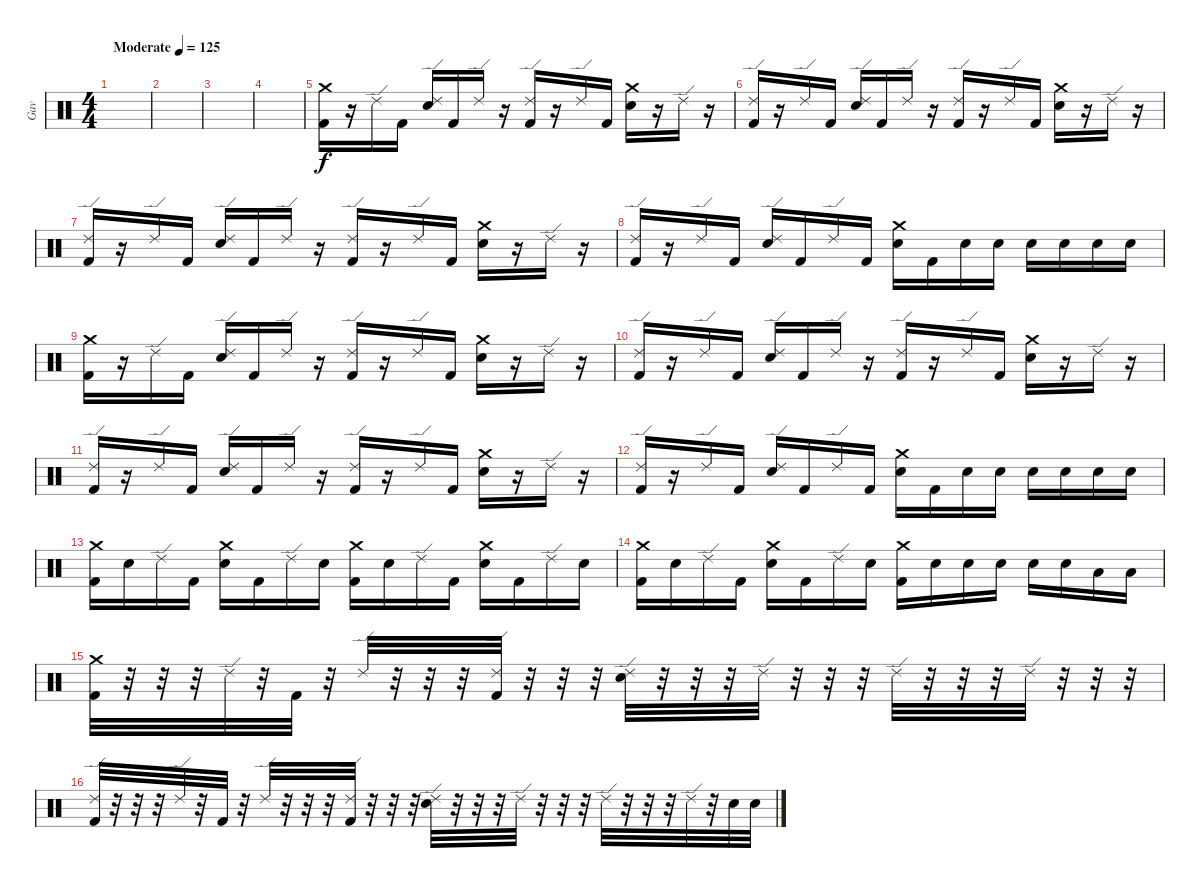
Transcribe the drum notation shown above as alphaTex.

\track ("Gav" "Gav") {instrument percussion}
\staff {score}
\articulation defaults
\ts (4 4)
\tempo (125 "Moderate")
\clef neutral
\ks c
|
|
|
|
("Crash medium (hit)" "Kick (hit) 2").16 r.16 "Ride (edge) 2".16 "Kick (hit) 2".16 ("Ride (edge) 2" "Snare (hit) 2").16 "Kick (hit) 2".16 "Ride (edge) 2".16 r.16 ("Ride (edge) 2" "Kick (hit) 2").16 r.16 "Ride (edge) 2".16 "Kick (hit) 2".16 ("Crash medium (hit)" "Snare (hit) 2").16 r.16 "Ride (edge) 2".16 r.16 |
("Ride (edge) 2" "Kick (hit) 2").16 r.16 "Ride (edge) 2".16 "Kick (hit) 2".16 ("Ride (edge) 2" "Snare (hit) 2").16 "Kick (hit) 2".16 "Ride (edge) 2".16 r.16 ("Ride (edge) 2" "Kick (hit) 2").16 r.16 "Ride (edge) 2".16 "Kick (hit) 2".16 ("Crash medium (hit)" "Snare (hit) 2").16 r.16 "Ride (edge) 2".16 r.16 |
("Ride (edge) 2" "Kick (hit) 2").16 r.16 "Ride (edge) 2".16 "Kick (hit) 2".16 ("Ride (edge) 2" "Snare (hit) 2").16 "Kick (hit) 2".16 "Ride (edge) 2".16 r.16 ("Ride (edge) 2" "Kick (hit) 2").16 r.16 "Ride (edge) 2".16 "Kick (hit) 2".16 ("Crash medium (hit)" "Snare (hit) 2").16 r.16 "Ride (edge) 2".16 r.16 |
("Ride (edge) 2" "Kick (hit) 2").16 r.16 "Ride (edge) 2".16 "Kick (hit) 2".16 ("Ride (edge) 2" "Snare (hit) 2").16 "Kick (hit) 2".16 "Ride (edge) 2".16 "Kick (hit) 2".16 ("Crash medium (hit)" "Snare (hit) 2").16 "Kick (hit) 2".16 "Snare (hit) 2".16 "Snare (hit) 2".16 "Snare (hit) 2".16 "Snare (hit) 2".16 "Snare (hit) 2".16 "Snare (hit) 2".16 |
("Crash medium (hit)" "Kick (hit) 2").16 r.16 "Ride (edge) 2".16 "Kick (hit) 2".16 ("Ride (edge) 2" "Snare (hit) 2").16 "Kick (hit) 2".16 "Ride (edge) 2".16 r.16 ("Ride (edge) 2" "Kick (hit) 2").16 r.16 "Ride (edge) 2".16 "Kick (hit) 2".16 ("Crash medium (hit)" "Snare (hit) 2").16 r.16 "Ride (edge) 2".16 r.16 |
("Ride (edge) 2" "Kick (hit) 2").16 r.16 "Ride (edge) 2".16 "Kick (hit) 2".16 ("Ride (edge) 2" "Snare (hit) 2").16 "Kick (hit) 2".16 "Ride (edge) 2".16 r.16 ("Ride (edge) 2" "Kick (hit) 2").16 r.16 "Ride (edge) 2".16 "Kick (hit) 2".16 ("Crash medium (hit)" "Snare (hit) 2").16 r.16 "Ride (edge) 2".16 r.16 |
("Ride (edge) 2" "Kick (hit) 2").16 r.16 "Ride (edge) 2".16 "Kick (hit) 2".16 ("Ride (edge) 2" "Snare (hit) 2").16 "Kick (hit) 2".16 "Ride (edge) 2".16 r.16 ("Ride (edge) 2" "Kick (hit) 2").16 r.16 "Ride (edge) 2".16 "Kick (hit) 2".16 ("Crash medium (hit)" "Snare (hit) 2").16 r.16 "Ride (edge) 2".16 r.16 |
("Ride (edge) 2" "Kick (hit) 2").16 r.16 "Ride (edge) 2".16 "Kick (hit) 2".16 ("Ride (edge) 2" "Snare (hit) 2").16 "Kick (hit) 2".16 "Ride (edge) 2".16 "Kick (hit) 2".16 ("Crash medium (hit)" "Snare (hit) 2").16 "Kick (hit) 2".16 "Snare (hit) 2".16 "Snare (hit) 2".16 "Snare (hit) 2".16 "Snare (hit) 2".16 "Snare (hit) 2".16 "Snare (hit) 2".16 |
("Crash medium (hit)" "Kick (hit) 2").16 "Snare (hit) 2".16 "Ride (edge) 2".16 "Kick (hit) 2".16 ("Crash medium (hit)" "Snare (hit) 2").16 "Kick (hit) 2".16 "Ride (edge) 2".16 "Snare (hit) 2".16 ("Crash medium (hit)" "Kick (hit) 2").16 "Snare (hit) 2".16 "Ride (edge) 2".16 "Kick (hit) 2".16 ("Crash medium (hit)" "Snare (hit) 2").16 "Kick (hit) 2".16 "Ride (edge) 2".16 "Snare (hit) 2".16 |
("Crash medium (hit)" "Kick (hit) 2").16 "Snare (hit) 2".16 "Ride (edge) 2".16 "Kick (hit) 2".16 ("Crash medium (hit)" "Snare (hit) 2").16 "Kick (hit) 2".16 "Ride (edge) 2".16 "Snare (hit) 2".16 ("Crash medium (hit)" "Kick (hit) 2").16 "Snare (hit) 2".16 "Snare (hit) 2".16 "Snare (hit) 2".16 "Snare (hit) 2".16 "Snare (hit) 2".16 "Low Tom (hit)".16 "Low Tom (hit)".16 |
("Crash medium (hit)" "Kick (hit) 2").32 r.32 r.32 r.32 "Ride (edge) 2".32 r.32 "Kick (hit) 2".32 r.32 "Ride (edge) 2".32 r.32 r.32 r.32 ("Ride (edge) 2" "Kick (hit) 2").32 r.32 r.32 r.32 ("Ride (edge) 2" "Snare (hit) 2").32 r.32 r.32 r.32 "Ride (edge) 2".32 r.32 r.32 r.32 "Ride (edge) 2".32 r.32 r.32 r.32 "Ride (edge) 2".32 r.32 r.32 r.32 |
("Ride (edge) 2" "Kick (hit) 2").32 r.32 r.32 r.32 "Ride (edge) 2".32 r.32 "Kick (hit) 2".32 r.32 "Ride (edge) 2".32 r.32 r.32 r.32 ("Ride (edge) 2" "Kick (hit) 2").32 r.32 r.32 r.32 ("Ride (edge) 2" "Snare (hit) 2").32 r.32 r.32 r.32 "Ride (edge) 2".32 r.32 r.32 r.32 "Ride (edge) 2".32 r.32 r.32 r.32 "Ride (edge) 2".32 r.32 "Snare (hit) 2".32 "Snare (hit) 2".32
